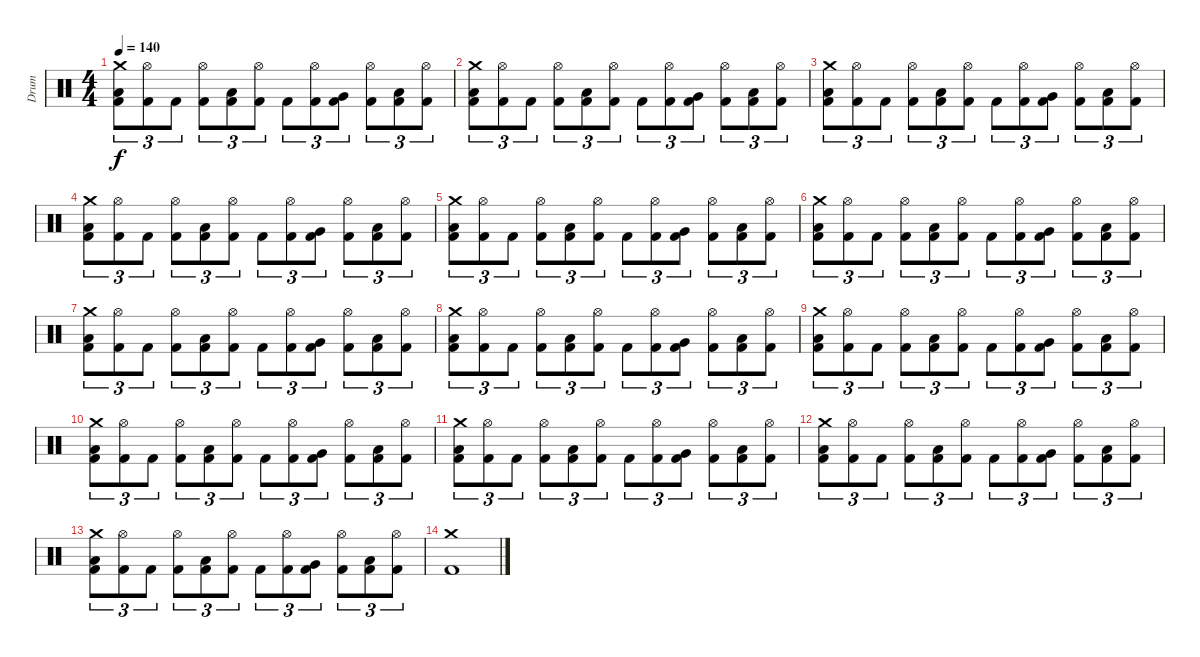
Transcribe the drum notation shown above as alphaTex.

\track ("Drum" "Drum") {instrument percussion}
\staff {score}
\articulation defaults
\ts (4 4)
\tempo 140
\clef neutral
\ks c
("Crash medium (hit)" "Low Tom (hit)" "Kick (hit) 2").8{tu (3 2) dy f} ("Hi-Hat (open)" "Kick (hit) 2").8{tu (3 2)} "Kick (hit) 2".8{tu (3 2)} ("Hi-Hat (open)" "Kick (hit) 2").8{tu (3 2)} ("Low Tom (hit)" "Kick (hit) 2").8{tu (3 2)} ("Hi-Hat (open)" "Kick (hit) 2").8{tu (3 2)} "Kick (hit) 2".8{tu (3 2)} ("Hi-Hat (open)" "Kick (hit) 2").8{tu (3 2)} ("Very Low Tom (hit)" "Kick (hit) 2").8{tu (3 2)} ("Hi-Hat (open)" "Kick (hit) 2").8{tu (3 2)} ("Low Floor Tom (hit)" "Kick (hit) 2").8{tu (3 2)} ("Hi-Hat (open)" "Kick (hit) 2").8{tu (3 2)} |
("Crash medium (hit)" "Low Tom (hit)" "Kick (hit) 2").8{tu (3 2)} ("Hi-Hat (open)" "Kick (hit) 2").8{tu (3 2)} "Kick (hit) 2".8{tu (3 2)} ("Hi-Hat (open)" "Kick (hit) 2").8{tu (3 2)} ("Low Tom (hit)" "Kick (hit) 2").8{tu (3 2)} ("Hi-Hat (open)" "Kick (hit) 2").8{tu (3 2)} "Kick (hit) 2".8{tu (3 2)} ("Hi-Hat (open)" "Kick (hit) 2").8{tu (3 2)} ("Very Low Tom (hit)" "Kick (hit) 2").8{tu (3 2)} ("Hi-Hat (open)" "Kick (hit) 2").8{tu (3 2)} ("Low Floor Tom (hit)" "Kick (hit) 2").8{tu (3 2)} ("Hi-Hat (open)" "Kick (hit) 2").8{tu (3 2)} |
("Crash medium (hit)" "Low Tom (hit)" "Kick (hit) 2").8{tu (3 2)} ("Hi-Hat (open)" "Kick (hit) 2").8{tu (3 2)} "Kick (hit) 2".8{tu (3 2)} ("Hi-Hat (open)" "Kick (hit) 2").8{tu (3 2)} ("Low Tom (hit)" "Kick (hit) 2").8{tu (3 2)} ("Hi-Hat (open)" "Kick (hit) 2").8{tu (3 2)} "Kick (hit) 2".8{tu (3 2)} ("Hi-Hat (open)" "Kick (hit) 2").8{tu (3 2)} ("Very Low Tom (hit)" "Kick (hit) 2").8{tu (3 2)} ("Hi-Hat (open)" "Kick (hit) 2").8{tu (3 2)} ("Low Floor Tom (hit)" "Kick (hit) 2").8{tu (3 2)} ("Hi-Hat (open)" "Kick (hit) 2").8{tu (3 2)} |
("Crash medium (hit)" "Low Tom (hit)" "Kick (hit) 2").8{tu (3 2)} ("Hi-Hat (open)" "Kick (hit) 2").8{tu (3 2)} "Kick (hit) 2".8{tu (3 2)} ("Hi-Hat (open)" "Kick (hit) 2").8{tu (3 2)} ("Low Tom (hit)" "Kick (hit) 2").8{tu (3 2)} ("Hi-Hat (open)" "Kick (hit) 2").8{tu (3 2)} "Kick (hit) 2".8{tu (3 2)} ("Hi-Hat (open)" "Kick (hit) 2").8{tu (3 2)} ("Very Low Tom (hit)" "Kick (hit) 2").8{tu (3 2)} ("Hi-Hat (open)" "Kick (hit) 2").8{tu (3 2)} ("Low Floor Tom (hit)" "Kick (hit) 2").8{tu (3 2)} ("Hi-Hat (open)" "Kick (hit) 2").8{tu (3 2)} |
("Crash medium (hit)" "Low Tom (hit)" "Kick (hit) 2").8{tu (3 2)} ("Hi-Hat (open)" "Kick (hit) 2").8{tu (3 2)} "Kick (hit) 2".8{tu (3 2)} ("Hi-Hat (open)" "Kick (hit) 2").8{tu (3 2)} ("Low Tom (hit)" "Kick (hit) 2").8{tu (3 2)} ("Hi-Hat (open)" "Kick (hit) 2").8{tu (3 2)} "Kick (hit) 2".8{tu (3 2)} ("Hi-Hat (open)" "Kick (hit) 2").8{tu (3 2)} ("Very Low Tom (hit)" "Kick (hit) 2").8{tu (3 2)} ("Hi-Hat (open)" "Kick (hit) 2").8{tu (3 2)} ("Low Floor Tom (hit)" "Kick (hit) 2").8{tu (3 2)} ("Hi-Hat (open)" "Kick (hit) 2").8{tu (3 2)} |
("Crash medium (hit)" "Low Tom (hit)" "Kick (hit) 2").8{tu (3 2)} ("Hi-Hat (open)" "Kick (hit) 2").8{tu (3 2)} "Kick (hit) 2".8{tu (3 2)} ("Hi-Hat (open)" "Kick (hit) 2").8{tu (3 2)} ("Low Tom (hit)" "Kick (hit) 2").8{tu (3 2)} ("Hi-Hat (open)" "Kick (hit) 2").8{tu (3 2)} "Kick (hit) 2".8{tu (3 2)} ("Hi-Hat (open)" "Kick (hit) 2").8{tu (3 2)} ("Very Low Tom (hit)" "Kick (hit) 2").8{tu (3 2)} ("Hi-Hat (open)" "Kick (hit) 2").8{tu (3 2)} ("Low Floor Tom (hit)" "Kick (hit) 2").8{tu (3 2)} ("Hi-Hat (open)" "Kick (hit) 2").8{tu (3 2)} |
("Crash medium (hit)" "Low Tom (hit)" "Kick (hit) 2").8{tu (3 2)} ("Hi-Hat (open)" "Kick (hit) 2").8{tu (3 2)} "Kick (hit) 2".8{tu (3 2)} ("Hi-Hat (open)" "Kick (hit) 2").8{tu (3 2)} ("Low Tom (hit)" "Kick (hit) 2").8{tu (3 2)} ("Hi-Hat (open)" "Kick (hit) 2").8{tu (3 2)} "Kick (hit) 2".8{tu (3 2)} ("Hi-Hat (open)" "Kick (hit) 2").8{tu (3 2)} ("Very Low Tom (hit)" "Kick (hit) 2").8{tu (3 2)} ("Hi-Hat (open)" "Kick (hit) 2").8{tu (3 2)} ("Low Floor Tom (hit)" "Kick (hit) 2").8{tu (3 2)} ("Hi-Hat (open)" "Kick (hit) 2").8{tu (3 2)} |
("Crash medium (hit)" "Low Tom (hit)" "Kick (hit) 2").8{tu (3 2)} ("Hi-Hat (open)" "Kick (hit) 2").8{tu (3 2)} "Kick (hit) 2".8{tu (3 2)} ("Hi-Hat (open)" "Kick (hit) 2").8{tu (3 2)} ("Low Tom (hit)" "Kick (hit) 2").8{tu (3 2)} ("Hi-Hat (open)" "Kick (hit) 2").8{tu (3 2)} "Kick (hit) 2".8{tu (3 2)} ("Hi-Hat (open)" "Kick (hit) 2").8{tu (3 2)} ("Very Low Tom (hit)" "Kick (hit) 2").8{tu (3 2)} ("Hi-Hat (open)" "Kick (hit) 2").8{tu (3 2)} ("Low Floor Tom (hit)" "Kick (hit) 2").8{tu (3 2)} ("Hi-Hat (open)" "Kick (hit) 2").8{tu (3 2)} |
("Crash medium (hit)" "Low Tom (hit)" "Kick (hit) 2").8{tu (3 2)} ("Hi-Hat (open)" "Kick (hit) 2").8{tu (3 2)} "Kick (hit) 2".8{tu (3 2)} ("Hi-Hat (open)" "Kick (hit) 2").8{tu (3 2)} ("Low Tom (hit)" "Kick (hit) 2").8{tu (3 2)} ("Hi-Hat (open)" "Kick (hit) 2").8{tu (3 2)} "Kick (hit) 2".8{tu (3 2)} ("Hi-Hat (open)" "Kick (hit) 2").8{tu (3 2)} ("Very Low Tom (hit)" "Kick (hit) 2").8{tu (3 2)} ("Hi-Hat (open)" "Kick (hit) 2").8{tu (3 2)} ("Low Floor Tom (hit)" "Kick (hit) 2").8{tu (3 2)} ("Hi-Hat (open)" "Kick (hit) 2").8{tu (3 2)} |
("Crash medium (hit)" "Low Tom (hit)" "Kick (hit) 2").8{tu (3 2)} ("Hi-Hat (open)" "Kick (hit) 2").8{tu (3 2)} "Kick (hit) 2".8{tu (3 2)} ("Hi-Hat (open)" "Kick (hit) 2").8{tu (3 2)} ("Low Tom (hit)" "Kick (hit) 2").8{tu (3 2)} ("Hi-Hat (open)" "Kick (hit) 2").8{tu (3 2)} "Kick (hit) 2".8{tu (3 2)} ("Hi-Hat (open)" "Kick (hit) 2").8{tu (3 2)} ("Very Low Tom (hit)" "Kick (hit) 2").8{tu (3 2)} ("Hi-Hat (open)" "Kick (hit) 2").8{tu (3 2)} ("Low Floor Tom (hit)" "Kick (hit) 2").8{tu (3 2)} ("Hi-Hat (open)" "Kick (hit) 2").8{tu (3 2)} |
("Crash medium (hit)" "Low Tom (hit)" "Kick (hit) 2").8{tu (3 2)} ("Hi-Hat (open)" "Kick (hit) 2").8{tu (3 2)} "Kick (hit) 2".8{tu (3 2)} ("Hi-Hat (open)" "Kick (hit) 2").8{tu (3 2)} ("Low Tom (hit)" "Kick (hit) 2").8{tu (3 2)} ("Hi-Hat (open)" "Kick (hit) 2").8{tu (3 2)} "Kick (hit) 2".8{tu (3 2)} ("Hi-Hat (open)" "Kick (hit) 2").8{tu (3 2)} ("Very Low Tom (hit)" "Kick (hit) 2").8{tu (3 2)} ("Hi-Hat (open)" "Kick (hit) 2").8{tu (3 2)} ("Low Floor Tom (hit)" "Kick (hit) 2").8{tu (3 2)} ("Hi-Hat (open)" "Kick (hit) 2").8{tu (3 2)} |
("Crash medium (hit)" "Low Tom (hit)" "Kick (hit) 2").8{tu (3 2)} ("Hi-Hat (open)" "Kick (hit) 2").8{tu (3 2)} "Kick (hit) 2".8{tu (3 2)} ("Hi-Hat (open)" "Kick (hit) 2").8{tu (3 2)} ("Low Tom (hit)" "Kick (hit) 2").8{tu (3 2)} ("Hi-Hat (open)" "Kick (hit) 2").8{tu (3 2)} "Kick (hit) 2".8{tu (3 2)} ("Hi-Hat (open)" "Kick (hit) 2").8{tu (3 2)} ("Very Low Tom (hit)" "Kick (hit) 2").8{tu (3 2)} ("Hi-Hat (open)" "Kick (hit) 2").8{tu (3 2)} ("Low Floor Tom (hit)" "Kick (hit) 2").8{tu (3 2)} ("Hi-Hat (open)" "Kick (hit) 2").8{tu (3 2)} |
("Crash medium (hit)" "Low Tom (hit)" "Kick (hit) 2").8{tu (3 2)} ("Hi-Hat (open)" "Kick (hit) 2").8{tu (3 2)} "Kick (hit) 2".8{tu (3 2)} ("Hi-Hat (open)" "Kick (hit) 2").8{tu (3 2)} ("Low Tom (hit)" "Kick (hit) 2").8{tu (3 2)} ("Hi-Hat (open)" "Kick (hit) 2").8{tu (3 2)} "Kick (hit) 2".8{tu (3 2)} ("Hi-Hat (open)" "Kick (hit) 2").8{tu (3 2)} ("Very Low Tom (hit)" "Kick (hit) 2").8{tu (3 2)} ("Hi-Hat (open)" "Kick (hit) 2").8{tu (3 2)} ("Low Floor Tom (hit)" "Kick (hit) 2").8{tu (3 2)} ("Hi-Hat (open)" "Kick (hit) 2").8{tu (3 2)} |
("Crash medium (hit)" "Kick (hit) 2").1
